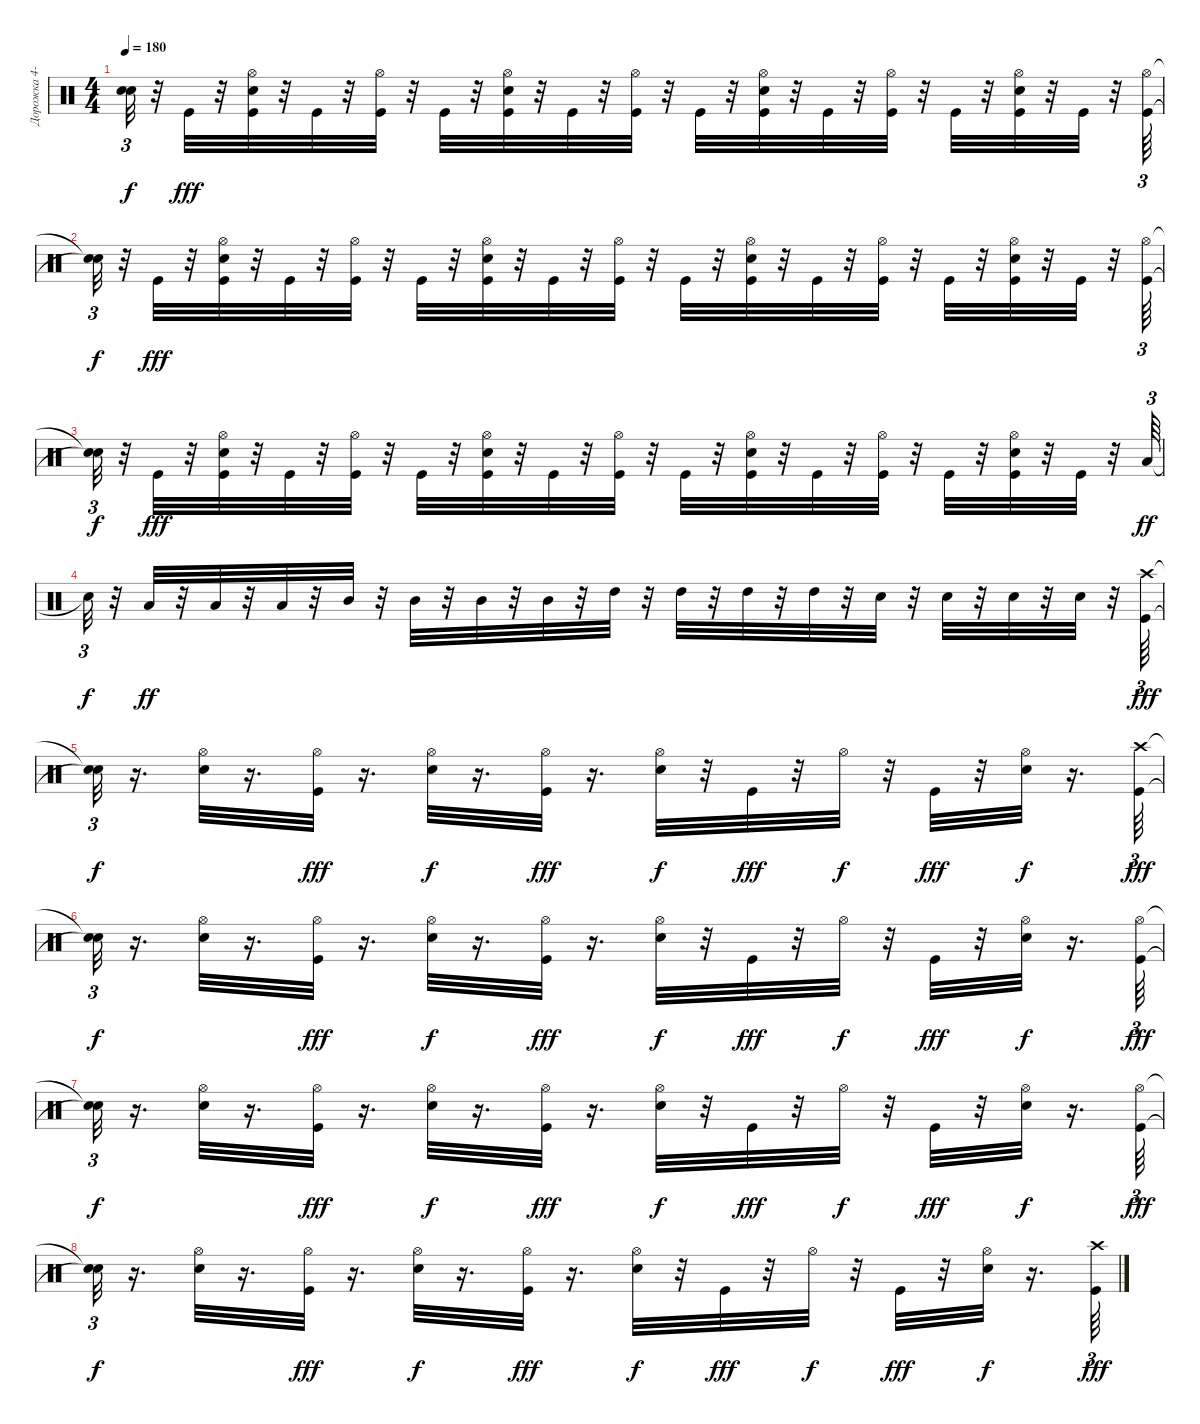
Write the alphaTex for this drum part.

\track ("Дорожка 4-10-11" "Дорожка 4-") {instrument percussion}
\staff {score}
\articulation defaults
\ts (4 4)
\tempo 180
\clef neutral
\ks c
("Snare (hit)"{t} "Snare (hit)"{t}).32{tu (3 2) dy f} r.32 "Kick (hit)".32{dy fff} r.32 ("Hi-Hat (open)" "Snare (hit) 2" "Kick (hit)").32 r.32 "Kick (hit)".32 r.32 ("Hi-Hat (open)" "Kick (hit)").32 r.32 "Kick (hit)".32 r.32 ("Hi-Hat (open)" "Snare (hit) 2" "Kick (hit)").32 r.32 "Kick (hit)".32 r.32 ("Hi-Hat (open)" "Kick (hit)").32 r.32 "Kick (hit)".32 r.32 ("Hi-Hat (open)" "Snare (hit) 2" "Kick (hit)").32 r.32 "Kick (hit)".32 r.32 ("Hi-Hat (open)" "Kick (hit)").32 r.32 "Kick (hit)".32 r.32 ("Hi-Hat (open)" "Snare (hit) 2" "Kick (hit)").32 r.32 "Kick (hit)".32 r.32 ("Hi-Hat (open)" "Kick (hit)").64{tu (3 2)} |
("Snare (hit)"{t} "Snare (hit)"{t}).32{tu (3 2) dy f} r.32 "Kick (hit)".32{dy fff} r.32 ("Hi-Hat (open)" "Snare (hit) 2" "Kick (hit)").32 r.32 "Kick (hit)".32 r.32 ("Hi-Hat (open)" "Kick (hit)").32 r.32 "Kick (hit)".32 r.32 ("Hi-Hat (open)" "Snare (hit) 2" "Kick (hit)").32 r.32 "Kick (hit)".32 r.32 ("Hi-Hat (open)" "Kick (hit)").32 r.32 "Kick (hit)".32 r.32 ("Hi-Hat (open)" "Snare (hit) 2" "Kick (hit)").32 r.32 "Kick (hit)".32 r.32 ("Hi-Hat (open)" "Kick (hit)").32 r.32 "Kick (hit)".32 r.32 ("Hi-Hat (open)" "Snare (hit) 2" "Kick (hit)").32 r.32 "Kick (hit)".32 r.32 ("Hi-Hat (open)" "Kick (hit)").64{tu (3 2)} |
("Snare (hit)"{t} "Snare (hit)"{t}).32{tu (3 2) dy f} r.32 "Kick (hit)".32{dy fff} r.32 ("Hi-Hat (open)" "Snare (hit) 2" "Kick (hit)").32 r.32 "Kick (hit)".32 r.32 ("Hi-Hat (open)" "Kick (hit)").32 r.32 "Kick (hit)".32 r.32 ("Hi-Hat (open)" "Snare (hit) 2" "Kick (hit)").32 r.32 "Kick (hit)".32 r.32 ("Hi-Hat (open)" "Kick (hit)").32 r.32 "Kick (hit)".32 r.32 ("Hi-Hat (open)" "Snare (hit) 2" "Kick (hit)").32 r.32 "Kick (hit)".32 r.32 ("Hi-Hat (open)" "Kick (hit)").32 r.32 "Kick (hit)".32 r.32 ("Hi-Hat (open)" "Snare (hit) 2" "Kick (hit)").32 r.32 "Kick (hit)".32 r.32 "Low Tom (hit)".64{tu (3 2) dy ff} |
"Snare (hit)"{t}.32{tu (3 2) dy f} r.32 "Low Tom (hit)".32{dy ff} r.32 "Low Tom (hit)".32 r.32 "Low Tom (hit)".32 r.32 "Mid Tom (hit)".32 r.32 "Mid Tom (hit)".32 r.32 "Mid Tom (hit)".32 r.32 "Mid Tom (hit)".32 r.32 "High Tom (hit)".32 r.32 "High Tom (hit)".32 r.32 "High Tom (hit)".32 r.32 "High Tom (hit)".32 r.32 "Snare (hit) 2".32 r.32 "Snare (hit) 2".32 r.32 "Snare (hit) 2".32 r.32 "Snare (hit) 2".32 r.32 ("Crash high (hit)" "Kick (hit)").64{tu (3 2) dy fff} |
("Snare (hit)"{t} "Snare (hit)"{t}).32{tu (3 2) dy f} r.16{d} ("Hi-Hat (open)" "Snare (hit) 2").32 r.16{d} ("Hi-Hat (open)" "Kick (hit)").32{dy fff} r.16{d} ("Hi-Hat (open)" "Snare (hit) 2").32{dy f} r.16{d} ("Hi-Hat (open)" "Kick (hit)").32{dy fff} r.16{d} ("Hi-Hat (open)" "Snare (hit) 2").32{dy f} r.32 "Kick (hit)".32{dy fff} r.32 "Hi-Hat (open)".32{dy f} r.32 "Kick (hit)".32{dy fff} r.32 ("Hi-Hat (open)" "Snare (hit) 2").32{dy f} r.16{d} ("Crash high (hit)" "Kick (hit)").64{tu (3 2) dy fff} |
("Snare (hit)"{t} "Snare (hit)"{t}).32{tu (3 2) dy f} r.16{d} ("Hi-Hat (open)" "Snare (hit) 2").32 r.16{d} ("Hi-Hat (open)" "Kick (hit)").32{dy fff} r.16{d} ("Hi-Hat (open)" "Snare (hit) 2").32{dy f} r.16{d} ("Hi-Hat (open)" "Kick (hit)").32{dy fff} r.16{d} ("Hi-Hat (open)" "Snare (hit) 2").32{dy f} r.32 "Kick (hit)".32{dy fff} r.32 "Hi-Hat (open)".32{dy f} r.32 "Kick (hit)".32{dy fff} r.32 ("Hi-Hat (open)" "Snare (hit) 2").32{dy f} r.16{d} ("Hi-Hat (open)" "Kick (hit)").64{tu (3 2) dy fff} |
("Snare (hit)"{t} "Snare (hit)"{t}).32{tu (3 2) dy f} r.16{d} ("Hi-Hat (open)" "Snare (hit) 2").32 r.16{d} ("Hi-Hat (open)" "Kick (hit)").32{dy fff} r.16{d} ("Hi-Hat (open)" "Snare (hit) 2").32{dy f} r.16{d} ("Hi-Hat (open)" "Kick (hit)").32{dy fff} r.16{d} ("Hi-Hat (open)" "Snare (hit) 2").32{dy f} r.32 "Kick (hit)".32{dy fff} r.32 "Hi-Hat (open)".32{dy f} r.32 "Kick (hit)".32{dy fff} r.32 ("Hi-Hat (open)" "Snare (hit) 2").32{dy f} r.16{d} ("Hi-Hat (open)" "Kick (hit)").64{tu (3 2) dy fff} |
("Snare (hit)"{t} "Snare (hit)"{t}).32{tu (3 2) dy f} r.16{d} ("Hi-Hat (open)" "Snare (hit) 2").32 r.16{d} ("Hi-Hat (open)" "Kick (hit)").32{dy fff} r.16{d} ("Hi-Hat (open)" "Snare (hit) 2").32{dy f} r.16{d} ("Hi-Hat (open)" "Kick (hit)").32{dy fff} r.16{d} ("Hi-Hat (open)" "Snare (hit) 2").32{dy f} r.32 "Kick (hit)".32{dy fff} r.32 "Hi-Hat (open)".32{dy f} r.32 "Kick (hit)".32{dy fff} r.32 ("Hi-Hat (open)" "Snare (hit) 2").32{dy f} r.16{d} ("Crash high (hit)" "Kick (hit)").64{tu (3 2) dy fff}
